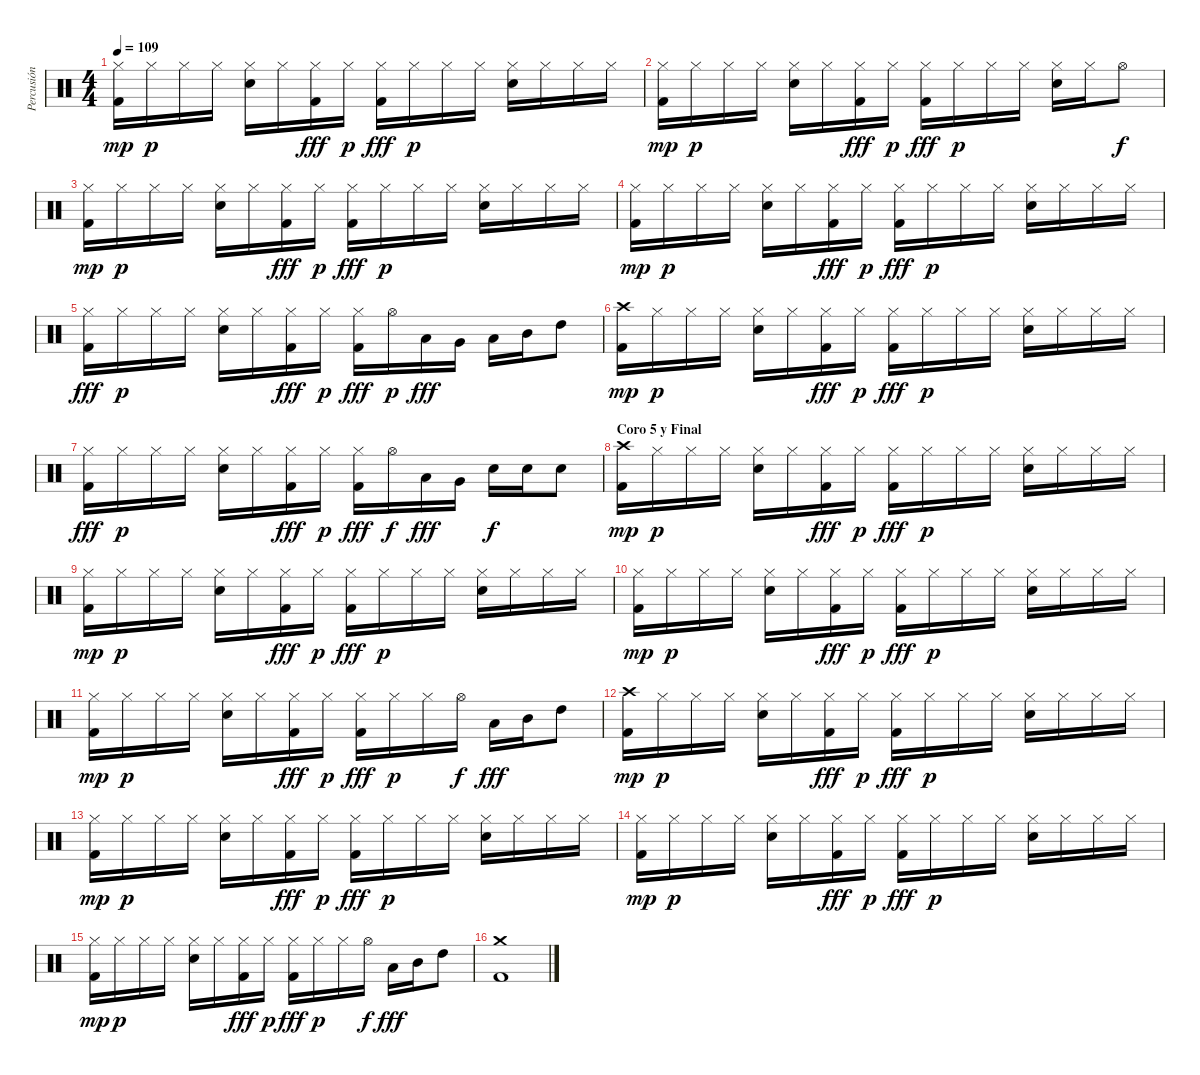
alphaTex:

\track ("Percusión" "Percusión") {instrument percussion}
\staff {score}
\articulation defaults
\ts (4 4)
\tempo 109
\clef neutral
\ks c
("Hi-Hat (closed)" "Kick (hit) 2").16{dy mp} "Hi-Hat (closed)".16{dy p} "Hi-Hat (closed)".16 "Hi-Hat (closed)".16 ("Hi-Hat (closed)" "Snare (hit) 2").16 "Hi-Hat (closed)".16 ("Hi-Hat (closed)" "Kick (hit) 2").16{dy fff} "Hi-Hat (closed)".16{dy p} ("Hi-Hat (closed)" "Kick (hit) 2").16{dy fff} "Hi-Hat (closed)".16{dy p} "Hi-Hat (closed)".16 "Hi-Hat (closed)".16 ("Hi-Hat (closed)" "Snare (hit) 2").16 "Hi-Hat (closed)".16 "Hi-Hat (closed)".16 "Hi-Hat (closed)".16 |
("Hi-Hat (closed)" "Kick (hit) 2").16{dy mp} "Hi-Hat (closed)".16{dy p} "Hi-Hat (closed)".16 "Hi-Hat (closed)".16 ("Hi-Hat (closed)" "Snare (hit) 2").16 "Hi-Hat (closed)".16 ("Hi-Hat (closed)" "Kick (hit) 2").16{dy fff} "Hi-Hat (closed)".16{dy p} ("Hi-Hat (closed)" "Kick (hit) 2").16{dy fff} "Hi-Hat (closed)".16{dy p} "Hi-Hat (closed)".16 "Hi-Hat (closed)".16 ("Hi-Hat (closed)" "Snare (hit) 2").16 "Hi-Hat (closed)".16 "Hi-Hat (open)".8{dy f} |
("Hi-Hat (closed)" "Kick (hit) 2").16{dy mp} "Hi-Hat (closed)".16{dy p} "Hi-Hat (closed)".16 "Hi-Hat (closed)".16 ("Hi-Hat (closed)" "Snare (hit) 2").16 "Hi-Hat (closed)".16 ("Hi-Hat (closed)" "Kick (hit) 2").16{dy fff} "Hi-Hat (closed)".16{dy p} ("Hi-Hat (closed)" "Kick (hit) 2").16{dy fff} "Hi-Hat (closed)".16{dy p} "Hi-Hat (closed)".16 "Hi-Hat (closed)".16 ("Hi-Hat (closed)" "Snare (hit) 2").16 "Hi-Hat (closed)".16 "Hi-Hat (closed)".16 "Hi-Hat (closed)".16 |
("Hi-Hat (closed)" "Kick (hit) 2").16{dy mp} "Hi-Hat (closed)".16{dy p} "Hi-Hat (closed)".16 "Hi-Hat (closed)".16 ("Hi-Hat (closed)" "Snare (hit) 2").16 "Hi-Hat (closed)".16 ("Hi-Hat (closed)" "Kick (hit) 2").16{dy fff} "Hi-Hat (closed)".16{dy p} ("Hi-Hat (closed)" "Kick (hit) 2").16{dy fff} "Hi-Hat (closed)".16{dy p} "Hi-Hat (closed)".16 "Hi-Hat (closed)".16 ("Hi-Hat (closed)" "Snare (hit) 2").16 "Hi-Hat (closed)".16 "Hi-Hat (closed)".16 "Hi-Hat (closed)".16 |
("Hi-Hat (closed)" "Kick (hit) 2").16{dy fff} "Hi-Hat (closed)".16{dy p} "Hi-Hat (closed)".16 "Hi-Hat (closed)".16 ("Hi-Hat (closed)" "Snare (hit) 2").16 "Hi-Hat (closed)".16 ("Hi-Hat (closed)" "Kick (hit) 2").16{dy fff} "Hi-Hat (closed)".16{dy p} ("Hi-Hat (closed)" "Kick (hit) 2").16{dy fff} "Hi-Hat (open)".16{dy p} "Low Floor Tom (hit)".16{dy fff} "Very Low Tom (hit)".16 "Low Tom (hit)".16 "Mid Tom (hit)".16 "High Tom (hit)".8 |
("Crash high (hit)" "Kick (hit) 2").16{dy mp} "Hi-Hat (closed)".16{dy p} "Hi-Hat (closed)".16 "Hi-Hat (closed)".16 ("Hi-Hat (closed)" "Snare (hit) 2").16 "Hi-Hat (closed)".16 ("Hi-Hat (closed)" "Kick (hit) 2").16{dy fff} "Hi-Hat (closed)".16{dy p} ("Hi-Hat (closed)" "Kick (hit) 2").16{dy fff} "Hi-Hat (closed)".16{dy p} "Hi-Hat (closed)".16 "Hi-Hat (closed)".16 ("Hi-Hat (closed)" "Snare (hit) 2").16 "Hi-Hat (closed)".16 "Hi-Hat (closed)".16 "Hi-Hat (closed)".16 |
("Hi-Hat (closed)" "Kick (hit) 2").16{dy fff} "Hi-Hat (closed)".16{dy p} "Hi-Hat (closed)".16 "Hi-Hat (closed)".16 ("Hi-Hat (closed)" "Snare (hit) 2").16 "Hi-Hat (closed)".16 ("Hi-Hat (closed)" "Kick (hit) 2").16{dy fff} "Hi-Hat (closed)".16{dy p} ("Hi-Hat (closed)" "Kick (hit) 2").16{dy fff} "Hi-Hat (open)".16{dy f} "Low Floor Tom (hit)".16{dy fff} "Very Low Tom (hit)".16 "Snare (hit) 2".16{dy f} "Snare (hit) 2".16 "Snare (hit) 2".8 |
\section ("" "Coro 5 y Final")
("Crash high (hit)" "Kick (hit) 2").16{dy mp} "Hi-Hat (closed)".16{dy p} "Hi-Hat (closed)".16 "Hi-Hat (closed)".16 ("Hi-Hat (closed)" "Snare (hit) 2").16 "Hi-Hat (closed)".16 ("Hi-Hat (closed)" "Kick (hit) 2").16{dy fff} "Hi-Hat (closed)".16{dy p} ("Hi-Hat (closed)" "Kick (hit) 2").16{dy fff} "Hi-Hat (closed)".16{dy p} "Hi-Hat (closed)".16 "Hi-Hat (closed)".16 ("Hi-Hat (closed)" "Snare (hit) 2").16 "Hi-Hat (closed)".16 "Hi-Hat (closed)".16 "Hi-Hat (closed)".16 |
("Hi-Hat (closed)" "Kick (hit) 2").16{dy mp} "Hi-Hat (closed)".16{dy p} "Hi-Hat (closed)".16 "Hi-Hat (closed)".16 ("Hi-Hat (closed)" "Snare (hit) 2").16 "Hi-Hat (closed)".16 ("Hi-Hat (closed)" "Kick (hit) 2").16{dy fff} "Hi-Hat (closed)".16{dy p} ("Hi-Hat (closed)" "Kick (hit) 2").16{dy fff} "Hi-Hat (closed)".16{dy p} "Hi-Hat (closed)".16 "Hi-Hat (closed)".16 ("Hi-Hat (closed)" "Snare (hit) 2").16 "Hi-Hat (closed)".16 "Hi-Hat (closed)".16 "Hi-Hat (closed)".16 |
("Hi-Hat (closed)" "Kick (hit) 2").16{dy mp} "Hi-Hat (closed)".16{dy p} "Hi-Hat (closed)".16 "Hi-Hat (closed)".16 ("Hi-Hat (closed)" "Snare (hit) 2").16 "Hi-Hat (closed)".16 ("Hi-Hat (closed)" "Kick (hit) 2").16{dy fff} "Hi-Hat (closed)".16{dy p} ("Hi-Hat (closed)" "Kick (hit) 2").16{dy fff} "Hi-Hat (closed)".16{dy p} "Hi-Hat (closed)".16 "Hi-Hat (closed)".16 ("Hi-Hat (closed)" "Snare (hit) 2").16 "Hi-Hat (closed)".16 "Hi-Hat (closed)".16 "Hi-Hat (closed)".16 |
("Hi-Hat (closed)" "Kick (hit) 2").16{dy mp} "Hi-Hat (closed)".16{dy p} "Hi-Hat (closed)".16 "Hi-Hat (closed)".16 ("Hi-Hat (closed)" "Snare (hit) 2").16 "Hi-Hat (closed)".16 ("Hi-Hat (closed)" "Kick (hit) 2").16{dy fff} "Hi-Hat (closed)".16{dy p} ("Hi-Hat (closed)" "Kick (hit) 2").16{dy fff} "Hi-Hat (closed)".16{dy p} "Hi-Hat (closed)".16 "Hi-Hat (open)".16{dy f} "Low Tom (hit)".16{dy fff} "Mid Tom (hit)".16 "High Tom (hit)".8 |
("Crash high (hit)" "Kick (hit) 2").16{dy mp} "Hi-Hat (closed)".16{dy p} "Hi-Hat (closed)".16 "Hi-Hat (closed)".16 ("Hi-Hat (closed)" "Snare (hit) 2").16 "Hi-Hat (closed)".16 ("Hi-Hat (closed)" "Kick (hit) 2").16{dy fff} "Hi-Hat (closed)".16{dy p} ("Hi-Hat (closed)" "Kick (hit) 2").16{dy fff} "Hi-Hat (closed)".16{dy p} "Hi-Hat (closed)".16 "Hi-Hat (closed)".16 ("Hi-Hat (closed)" "Snare (hit) 2").16 "Hi-Hat (closed)".16 "Hi-Hat (closed)".16 "Hi-Hat (closed)".16 |
("Hi-Hat (closed)" "Kick (hit) 2").16{dy mp} "Hi-Hat (closed)".16{dy p} "Hi-Hat (closed)".16 "Hi-Hat (closed)".16 ("Hi-Hat (closed)" "Snare (hit) 2").16 "Hi-Hat (closed)".16 ("Hi-Hat (closed)" "Kick (hit) 2").16{dy fff} "Hi-Hat (closed)".16{dy p} ("Hi-Hat (closed)" "Kick (hit) 2").16{dy fff} "Hi-Hat (closed)".16{dy p} "Hi-Hat (closed)".16 "Hi-Hat (closed)".16 ("Hi-Hat (closed)" "Snare (hit) 2").16 "Hi-Hat (closed)".16 "Hi-Hat (closed)".16 "Hi-Hat (closed)".16 |
("Hi-Hat (closed)" "Kick (hit) 2").16{dy mp} "Hi-Hat (closed)".16{dy p} "Hi-Hat (closed)".16 "Hi-Hat (closed)".16 ("Hi-Hat (closed)" "Snare (hit) 2").16 "Hi-Hat (closed)".16 ("Hi-Hat (closed)" "Kick (hit) 2").16{dy fff} "Hi-Hat (closed)".16{dy p} ("Hi-Hat (closed)" "Kick (hit) 2").16{dy fff} "Hi-Hat (closed)".16{dy p} "Hi-Hat (closed)".16 "Hi-Hat (closed)".16 ("Hi-Hat (closed)" "Snare (hit) 2").16 "Hi-Hat (closed)".16 "Hi-Hat (closed)".16 "Hi-Hat (closed)".16 |
("Hi-Hat (closed)" "Kick (hit) 2").16{dy mp} "Hi-Hat (closed)".16{dy p} "Hi-Hat (closed)".16 "Hi-Hat (closed)".16 ("Hi-Hat (closed)" "Snare (hit) 2").16 "Hi-Hat (closed)".16 ("Hi-Hat (closed)" "Kick (hit) 2").16{dy fff} "Hi-Hat (closed)".16{dy p} ("Hi-Hat (closed)" "Kick (hit) 2").16{dy fff} "Hi-Hat (closed)".16{dy p} "Hi-Hat (closed)".16 "Hi-Hat (open)".16{dy f} "Low Tom (hit)".16{dy fff} "Mid Tom (hit)".16 "High Tom (hit)".8 |
("Crash medium (hit)" "Kick (hit) 2").1
